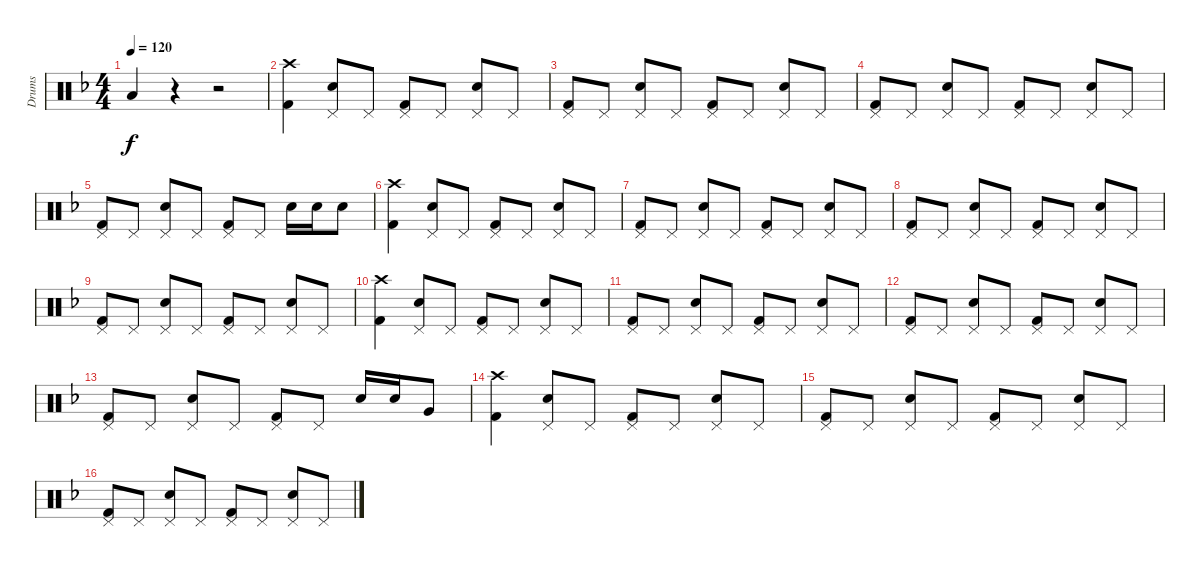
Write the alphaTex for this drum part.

\track ("Drums" "Drums") {instrument percussion}
\staff {score}
\articulation defaults
\ts (4 4)
\tempo 120
\clef neutral
\ks f "Low Floor Tom (hit)".4{dy f}
r.4 r.2 |
("Crash high (hit)" "Kick (hit) 2").4 ("Pedal Hi-Hat (hit)" "Electric Snare (hit)").8 "Pedal Hi-Hat (hit)".8 ("Pedal Hi-Hat (hit)" "Kick (hit) 2").8 "Pedal Hi-Hat (hit)".8 ("Pedal Hi-Hat (hit)" "Electric Snare (hit)").8 "Pedal Hi-Hat (hit)".8 |
("Pedal Hi-Hat (hit)" "Kick (hit) 2").8 "Pedal Hi-Hat (hit)".8 ("Pedal Hi-Hat (hit)" "Electric Snare (hit)").8 "Pedal Hi-Hat (hit)".8 ("Pedal Hi-Hat (hit)" "Kick (hit) 2").8 "Pedal Hi-Hat (hit)".8 ("Pedal Hi-Hat (hit)" "Electric Snare (hit)").8 "Pedal Hi-Hat (hit)".8 |
("Pedal Hi-Hat (hit)" "Kick (hit) 2").8 "Pedal Hi-Hat (hit)".8 ("Pedal Hi-Hat (hit)" "Electric Snare (hit)").8 "Pedal Hi-Hat (hit)".8 ("Pedal Hi-Hat (hit)" "Kick (hit) 2").8 "Pedal Hi-Hat (hit)".8 ("Pedal Hi-Hat (hit)" "Electric Snare (hit)").8 "Pedal Hi-Hat (hit)".8 |
("Pedal Hi-Hat (hit)" "Kick (hit) 2").8 "Pedal Hi-Hat (hit)".8 ("Pedal Hi-Hat (hit)" "Electric Snare (hit)").8 "Pedal Hi-Hat (hit)".8 ("Pedal Hi-Hat (hit)" "Kick (hit) 2").8 "Pedal Hi-Hat (hit)".8 "Electric Snare (hit)".16 "Electric Snare (hit)".16 "Electric Snare (hit)".8 |
("Crash high (hit)" "Kick (hit) 2").4 ("Pedal Hi-Hat (hit)" "Electric Snare (hit)").8 "Pedal Hi-Hat (hit)".8 ("Pedal Hi-Hat (hit)" "Kick (hit) 2").8 "Pedal Hi-Hat (hit)".8 ("Pedal Hi-Hat (hit)" "Electric Snare (hit)").8 "Pedal Hi-Hat (hit)".8 |
("Pedal Hi-Hat (hit)" "Kick (hit) 2").8 "Pedal Hi-Hat (hit)".8 ("Pedal Hi-Hat (hit)" "Electric Snare (hit)").8 "Pedal Hi-Hat (hit)".8 ("Pedal Hi-Hat (hit)" "Kick (hit) 2").8 "Pedal Hi-Hat (hit)".8 ("Pedal Hi-Hat (hit)" "Electric Snare (hit)").8 "Pedal Hi-Hat (hit)".8 |
("Pedal Hi-Hat (hit)" "Kick (hit) 2").8 "Pedal Hi-Hat (hit)".8 ("Pedal Hi-Hat (hit)" "Electric Snare (hit)").8 "Pedal Hi-Hat (hit)".8 ("Pedal Hi-Hat (hit)" "Kick (hit) 2").8 "Pedal Hi-Hat (hit)".8 ("Pedal Hi-Hat (hit)" "Electric Snare (hit)").8 "Pedal Hi-Hat (hit)".8 |
("Pedal Hi-Hat (hit)" "Kick (hit) 2").8 "Pedal Hi-Hat (hit)".8 ("Pedal Hi-Hat (hit)" "Electric Snare (hit)").8 "Pedal Hi-Hat (hit)".8 ("Pedal Hi-Hat (hit)" "Kick (hit) 2").8 "Pedal Hi-Hat (hit)".8 ("Pedal Hi-Hat (hit)" "Electric Snare (hit)").8 "Pedal Hi-Hat (hit)".8 |
("Crash high (hit)" "Kick (hit) 2").4 ("Pedal Hi-Hat (hit)" "Electric Snare (hit)").8 "Pedal Hi-Hat (hit)".8 ("Pedal Hi-Hat (hit)" "Kick (hit) 2").8 "Pedal Hi-Hat (hit)".8 ("Pedal Hi-Hat (hit)" "Electric Snare (hit)").8 "Pedal Hi-Hat (hit)".8 |
("Pedal Hi-Hat (hit)" "Kick (hit) 2").8 "Pedal Hi-Hat (hit)".8 ("Pedal Hi-Hat (hit)" "Electric Snare (hit)").8 "Pedal Hi-Hat (hit)".8 ("Pedal Hi-Hat (hit)" "Kick (hit) 2").8 "Pedal Hi-Hat (hit)".8 ("Pedal Hi-Hat (hit)" "Electric Snare (hit)").8 "Pedal Hi-Hat (hit)".8 |
("Pedal Hi-Hat (hit)" "Kick (hit) 2").8 "Pedal Hi-Hat (hit)".8 ("Pedal Hi-Hat (hit)" "Electric Snare (hit)").8 "Pedal Hi-Hat (hit)".8 ("Pedal Hi-Hat (hit)" "Kick (hit) 2").8 "Pedal Hi-Hat (hit)".8 ("Pedal Hi-Hat (hit)" "Electric Snare (hit)").8 "Pedal Hi-Hat (hit)".8 |
("Pedal Hi-Hat (hit)" "Kick (hit) 2").8 "Pedal Hi-Hat (hit)".8 ("Pedal Hi-Hat (hit)" "Electric Snare (hit)").8 "Pedal Hi-Hat (hit)".8 ("Pedal Hi-Hat (hit)" "Kick (hit) 2").8 "Pedal Hi-Hat (hit)".8 "Electric Snare (hit)".16 "Electric Snare (hit)".16 "Very Low Tom (hit)".8 |
("Crash high (hit)" "Kick (hit) 2").4 ("Pedal Hi-Hat (hit)" "Electric Snare (hit)").8 "Pedal Hi-Hat (hit)".8 ("Pedal Hi-Hat (hit)" "Kick (hit) 2").8 "Pedal Hi-Hat (hit)".8 ("Pedal Hi-Hat (hit)" "Electric Snare (hit)").8 "Pedal Hi-Hat (hit)".8 |
("Pedal Hi-Hat (hit)" "Kick (hit) 2").8 "Pedal Hi-Hat (hit)".8 ("Pedal Hi-Hat (hit)" "Electric Snare (hit)").8 "Pedal Hi-Hat (hit)".8 ("Pedal Hi-Hat (hit)" "Kick (hit) 2").8 "Pedal Hi-Hat (hit)".8 ("Pedal Hi-Hat (hit)" "Electric Snare (hit)").8 "Pedal Hi-Hat (hit)".8 |
("Pedal Hi-Hat (hit)" "Kick (hit) 2").8 "Pedal Hi-Hat (hit)".8 ("Pedal Hi-Hat (hit)" "Electric Snare (hit)").8 "Pedal Hi-Hat (hit)".8 ("Pedal Hi-Hat (hit)" "Kick (hit) 2").8 "Pedal Hi-Hat (hit)".8 ("Pedal Hi-Hat (hit)" "Electric Snare (hit)").8 "Pedal Hi-Hat (hit)".8
